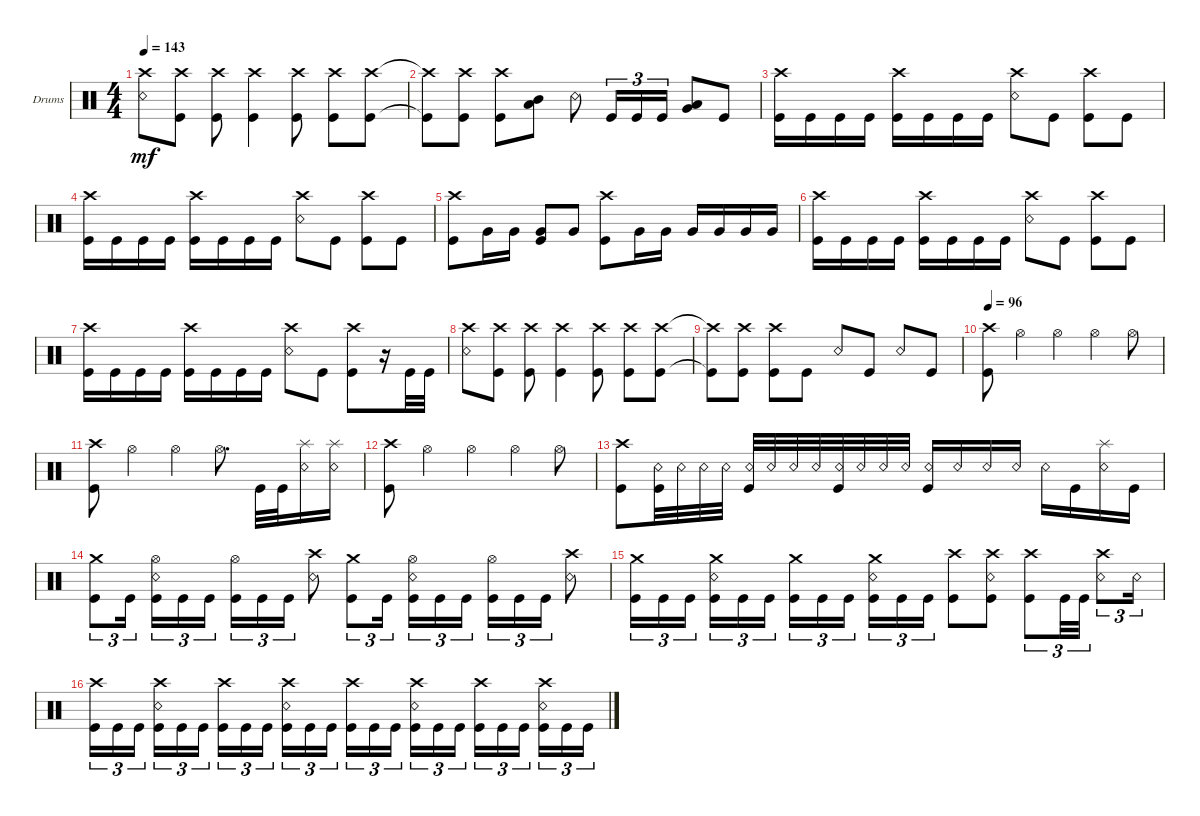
\defaultSystemsLayout 4
\bracketExtendMode groupsimilarinstruments
\firstSystemTrackNameOrientation horizontal
\otherSystemsTrackNameOrientation horizontal
\track ("Drums" "Drums") {instrument percussion}
\staff {score}
\articulation defaults
\ts (4 4)
\tempo 143
\clef neutral
\ks c
("Crash high (hit)" "Snare (rim shot)").8{dy mf} ("Crash high (hit)" "Kick (hit)").8 ("Crash high (hit)" "Kick (hit)").8 ("Crash high (hit)" "Kick (hit)").4 ("Crash high (hit)" "Kick (hit)").8 ("Crash high (hit)" "Kick (hit)").8 ("Crash high (hit)" "Kick (hit)").8 |
("Crash high (hit)"{t} "Kick (hit)"{t}).8 ("Crash high (hit)" "Kick (hit)").8 ("Crash high (hit)" "Kick (hit)").8 ("Mid Tom (hit)" "Low Tom (hit)").8 "Snare (rim shot)".8 "Kick (hit)".16{tu (3 2)} "Kick (hit)".16{tu (3 2)} "Kick (hit)".16{tu (3 2)} ("Low Tom (hit)" "Very Low Tom (hit)").8 "Kick (hit)".8 |
("Crash high (hit)" "Kick (hit)").16 "Kick (hit)".16 "Kick (hit)".16 "Kick (hit)".16 ("Kick (hit)" "Crash high (hit)").16 "Kick (hit)".16 "Kick (hit)".16 "Kick (hit)".16 ("Crash high (hit)" "Snare (rim shot)").8 "Kick (hit)".8 ("Kick (hit)" "Crash high (hit)").8 "Kick (hit)".8 |
("Crash high (hit)" "Kick (hit)").16 "Kick (hit)".16 "Kick (hit)".16 "Kick (hit)".16 ("Kick (hit)" "Crash high (hit)").16 "Kick (hit)".16 "Kick (hit)".16 "Kick (hit)".16 ("Crash high (hit)" "Snare (rim shot)").8 "Kick (hit)".8 ("Kick (hit)" "Crash high (hit)").8 "Kick (hit)".8 |
("Crash high (hit)" "Kick (hit)").8 "Very Low Tom (hit)".16 "Very Low Tom (hit)".16 ("Very Low Tom (hit)" "Kick (hit)").8 "Very Low Tom (hit)".8 ("Kick (hit)" "Crash high (hit)").8 "Very Low Tom (hit)".16 "Very Low Tom (hit)".16 "Very Low Tom (hit)".16 "Very Low Tom (hit)".16 "Very Low Tom (hit)".16 "Very Low Tom (hit)".16 |
("Crash high (hit)" "Kick (hit)").16 "Kick (hit)".16 "Kick (hit)".16 "Kick (hit)".16 ("Kick (hit)" "Crash high (hit)").16 "Kick (hit)".16 "Kick (hit)".16 "Kick (hit)".16 ("Crash high (hit)" "Snare (rim shot)").8 "Kick (hit)".8 ("Kick (hit)" "Crash high (hit)").8 "Kick (hit)".8 |
("Crash high (hit)" "Kick (hit)").16 "Kick (hit)".16 "Kick (hit)".16 "Kick (hit)".16 ("Kick (hit)" "Crash high (hit)").16 "Kick (hit)".16 "Kick (hit)".16 "Kick (hit)".16 ("Crash high (hit)" "Snare (rim shot)").8 "Kick (hit)".8 ("Kick (hit)" "Crash high (hit)").8 r.16 "Kick (hit)".32 "Kick (hit)".32 |
("Crash high (hit)" "Snare (rim shot)").8 ("Crash high (hit)" "Kick (hit)").8 ("Crash high (hit)" "Kick (hit)").8 ("Crash high (hit)" "Kick (hit)").4 ("Crash high (hit)" "Kick (hit)").8 ("Crash high (hit)" "Kick (hit)").8 ("Crash high (hit)" "Kick (hit)").8 |
("Crash high (hit)"{t} "Kick (hit)"{t}).8 ("Crash high (hit)" "Kick (hit)").8 ("Crash high (hit)" "Kick (hit)").8 "Kick (hit)".8 "Snare (rim shot)".8 "Kick (hit)".8 "Snare (rim shot)".8 "Kick (hit)".8 |
\tempo 96
("Kick (hit)" "Crash high (hit)").8 "Hi-Hat (open)".4 "Hi-Hat (open)".4 "Hi-Hat (open)".4 "Hi-Hat (open)".8 |
("Kick (hit)" "Crash high (hit)").8 "Hi-Hat (open)".4 "Hi-Hat (open)".4 "Hi-Hat (open)".8{d} "Kick (hit)".32 "Kick (hit)".32 ("Snare (rim shot)" "Splash (hit)").16 ("Snare (rim shot)" "Splash (hit)").16 |
("Kick (hit)" "Crash high (hit)").8 "Hi-Hat (open)".4 "Hi-Hat (open)".4 "Hi-Hat (open)".4 "Hi-Hat (open)".8 |
("Crash high (hit)" "Kick (hit)").8 ("Snare (rim shot)" "Kick (hit)").32 "Snare (rim shot)".32 "Snare (rim shot)".32 "Snare (rim shot)".32 ("Snare (rim shot)" "Kick (hit)").32 "Snare (rim shot)".32 "Snare (rim shot)".32 "Snare (rim shot)".32 ("Snare (rim shot)" "Kick (hit)").32 "Snare (rim shot)".32 "Snare (rim shot)".32 "Snare (rim shot)".32 ("Snare (rim shot)" "Kick (hit)").16 "Snare (rim shot)".16 "Snare (rim shot)".16 "Snare (rim shot)".16 "Snare (rim shot)".16 "Kick (hit)".16 ("Snare (rim shot)" "Splash (hit)").16 "Kick (hit)".16 |
("Kick (hit)" "Crash medium (hit)").8{tu (3 2)} "Kick (hit)".16{tu (3 2)} ("Kick (hit)" "Snare (rim shot)" "Hi-Hat (open)").16{tu (3 2)} "Kick (hit)".16{tu (3 2)} "Kick (hit)".16{tu (3 2)} ("Kick (hit)" "Hi-Hat (open)").16{tu (3 2)} "Kick (hit)".16{tu (3 2)} "Kick (hit)".16{tu (3 2)} ("Snare (rim shot)" "Crash high (hit)").8 ("Kick (hit)" "Crash medium (hit)").8{tu (3 2)} "Kick (hit)".16{tu (3 2)} ("Kick (hit)" "Snare (rim shot)" "Hi-Hat (open)").16{tu (3 2)} "Kick (hit)".16{tu (3 2)} "Kick (hit)".16{tu (3 2)} ("Kick (hit)" "Hi-Hat (open)").16{tu (3 2)} "Kick (hit)".16{tu (3 2)} "Kick (hit)".16{tu (3 2)} ("Snare (rim shot)" "Crash high (hit)").8 |
("Kick (hit)" "Crash medium (hit)").16{tu (3 2)} "Kick (hit)".16{tu (3 2)} "Kick (hit)".16{tu (3 2)} ("Kick (hit)" "Crash medium (hit)" "Snare (rim shot)").16{tu (3 2)} "Kick (hit)".16{tu (3 2)} "Kick (hit)".16{tu (3 2)} ("Kick (hit)" "Crash medium (hit)").16{tu (3 2)} "Kick (hit)".16{tu (3 2)} "Kick (hit)".16{tu (3 2)} ("Kick (hit)" "Crash medium (hit)" "Snare (rim shot)").16{tu (3 2)} "Kick (hit)".16{tu (3 2)} "Kick (hit)".16{tu (3 2)} ("Kick (hit)" "Crash high (hit)").8 ("Kick (hit)" "Crash high (hit)" "Snare (rim shot)").8 ("Kick (hit)" "Crash high (hit)").8{tu (3 2)} "Kick (hit)".32{tu (3 2)} "Kick (hit)".32{tu (3 2)} ("Snare (rim shot)" "Crash high (hit)").8{tu (3 2)} "Snare (rim shot)".16{tu (3 2)} |
("Kick (hit)" "Crash high (hit)").16{tu (3 2)} "Kick (hit)".16{tu (3 2)} "Kick (hit)".16{tu (3 2)} ("Kick (hit)" "Crash high (hit)" "Snare (rim shot)").16{tu (3 2)} "Kick (hit)".16{tu (3 2)} "Kick (hit)".16{tu (3 2)} ("Kick (hit)" "Crash high (hit)").16{tu (3 2)} "Kick (hit)".16{tu (3 2)} "Kick (hit)".16{tu (3 2)} ("Kick (hit)" "Crash high (hit)" "Snare (rim shot)").16{tu (3 2)} "Kick (hit)".16{tu (3 2)} "Kick (hit)".16{tu (3 2)} ("Kick (hit)" "Crash high (hit)").16{tu (3 2)} "Kick (hit)".16{tu (3 2)} "Kick (hit)".16{tu (3 2)} ("Kick (hit)" "Crash high (hit)" "Snare (rim shot)").16{tu (3 2)} "Kick (hit)".16{tu (3 2)} "Kick (hit)".16{tu (3 2)} ("Kick (hit)" "Crash high (hit)").16{tu (3 2)} "Kick (hit)".16{tu (3 2)} "Kick (hit)".16{tu (3 2)} ("Kick (hit)" "Crash high (hit)" "Snare (rim shot)").16{tu (3 2)} "Kick (hit)".16{tu (3 2)} "Kick (hit)".16{tu (3 2)}
